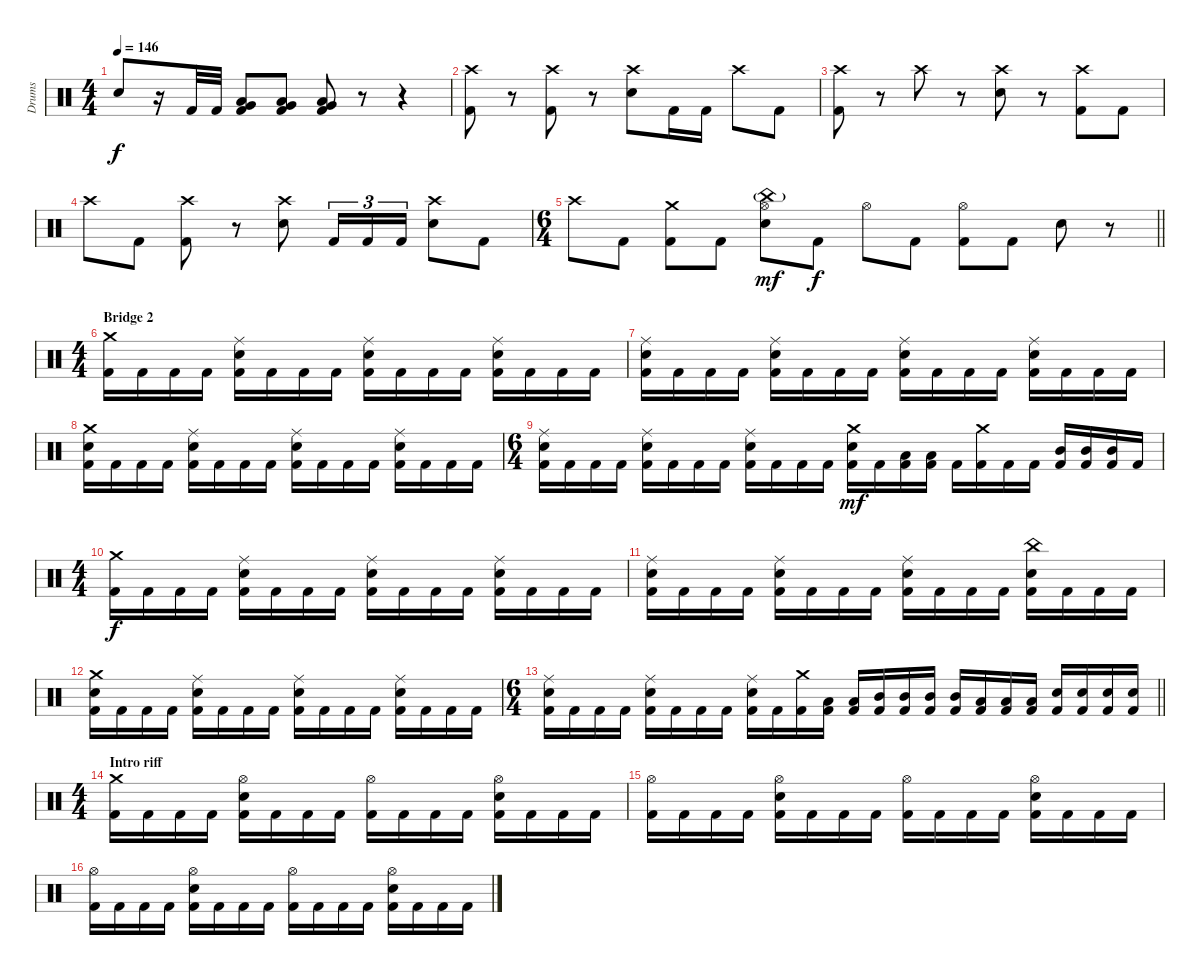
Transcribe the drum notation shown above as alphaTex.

\track ("Drums" "Drums") {instrument percussion}
\staff {score}
\articulation defaults
\ts (4 4)
\tempo 146
\clef neutral
\ks c "Electric Snare (hit)".8{dy f}
r.16 "Kick (hit) 2".32 "Kick (hit) 2".32 ("Very Low Tom (hit)" "Low Tom (hit)" "Kick (hit) 2").8 ("Very Low Tom (hit)" "Low Tom (hit)" "Kick (hit) 2").8 ("Very Low Tom (hit)" "Low Tom (hit)" "Kick (hit) 2").8 r.8 r.4 |
("Crash high (hit)" "Kick (hit) 2").8 r.8 ("Crash high (hit)" "Kick (hit) 2").8 r.8 ("Crash high (hit)" "Electric Snare (hit)").8 "Kick (hit) 2".16 "Kick (hit) 2".16 "Crash high (hit)".8 "Kick (hit) 2".8 |
("Crash high (hit)" "Kick (hit) 2").8 r.8 "Crash high (hit)".8 r.8 ("Crash high (hit)" "Electric Snare (hit)").8 r.8 ("Crash high (hit)" "Kick (hit) 2").8 "Kick (hit) 2".8 |
"Crash high (hit)".8 "Kick (hit) 2".8 ("Crash high (hit)" "Kick (hit) 2").8 r.8 ("Crash high (hit)" "Electric Snare (hit)").8 "Kick (hit) 2".16{tu (3 2)} "Kick (hit) 2".16{tu (3 2)} "Kick (hit) 2".16{tu (3 2)} ("Crash high (hit)" "Electric Snare (hit)").8 "Kick (hit) 2".8 |
\ts (6 4)
\barLineRight lightlight "Crash high (hit)".8 "Kick (hit) 2".8
("Crash medium (hit)" "Kick (hit) 2").8 "Kick (hit) 2".8 ("China (hit)"{g} "Hi-Hat (open)" "Electric Snare (hit)").8{dy mf} "Kick (hit) 2".8{dy f} "Hi-Hat (open)".8 "Kick (hit) 2".8 ("Hi-Hat (open)" "Kick (hit) 2").8 "Kick (hit) 2".8 "Electric Snare (hit)".8 r.8 |
\ts (4 4)
\section ("" "Bridge 2")
("Crash medium (hit)" "Kick (hit) 2").16 "Kick (hit) 2".16 "Kick (hit) 2".16 "Kick (hit) 2".16 ("Ride (middle)" "Electric Snare (hit)" "Kick (hit) 2").16 "Kick (hit) 2".16 "Kick (hit) 2".16 "Kick (hit) 2".16 ("Ride (middle)" "Electric Snare (hit)" "Kick (hit) 2").16 "Kick (hit) 2".16 "Kick (hit) 2".16 "Kick (hit) 2".16 ("Ride (middle)" "Electric Snare (hit)" "Kick (hit) 2").16 "Kick (hit) 2".16 "Kick (hit) 2".16 "Kick (hit) 2".16 |
("Ride (middle)" "Electric Snare (hit)" "Kick (hit) 2").16 "Kick (hit) 2".16 "Kick (hit) 2".16 "Kick (hit) 2".16 ("Ride (middle)" "Electric Snare (hit)" "Kick (hit) 2").16 "Kick (hit) 2".16 "Kick (hit) 2".16 "Kick (hit) 2".16 ("Ride (middle)" "Electric Snare (hit)" "Kick (hit) 2").16 "Kick (hit) 2".16 "Kick (hit) 2".16 "Kick (hit) 2".16 ("Ride (middle)" "Electric Snare (hit)" "Kick (hit) 2").16 "Kick (hit) 2".16 "Kick (hit) 2".16 "Kick (hit) 2".16 |
("Crash medium (hit)" "Electric Snare (hit)" "Kick (hit) 2").16 "Kick (hit) 2".16 "Kick (hit) 2".16 "Kick (hit) 2".16 ("Ride (middle)" "Electric Snare (hit)" "Kick (hit) 2").16 "Kick (hit) 2".16 "Kick (hit) 2".16 "Kick (hit) 2".16 ("Ride (middle)" "Electric Snare (hit)" "Kick (hit) 2").16 "Kick (hit) 2".16 "Kick (hit) 2".16 "Kick (hit) 2".16 ("Ride (middle)" "Electric Snare (hit)" "Kick (hit) 2").16 "Kick (hit) 2".16 "Kick (hit) 2".16 "Kick (hit) 2".16 |
\ts (6 4)
("Ride (middle)" "Electric Snare (hit)" "Kick (hit) 2").16 "Kick (hit) 2".16 "Kick (hit) 2".16 "Kick (hit) 2".16 ("Ride (middle)" "Electric Snare (hit)" "Kick (hit) 2").16 "Kick (hit) 2".16 "Kick (hit) 2".16 "Kick (hit) 2".16 ("Ride (middle)" "Electric Snare (hit)" "Kick (hit) 2").16 "Kick (hit) 2".16 "Kick (hit) 2".16 "Kick (hit) 2".16 ("Crash medium (hit)" "Electric Snare (hit)" "Kick (hit) 2").16{dy mf} "Kick (hit) 2".16 ("Low Tom (hit)" "Kick (hit) 2").16 ("Low Tom (hit)" "Kick (hit) 2").16 "Kick (hit) 2".16 ("Crash medium (hit)" "Kick (hit) 2").16 "Kick (hit) 2".16 "Kick (hit) 2".16 ("Mid Tom (hit)" "Kick (hit) 2").16 ("Mid Tom (hit)" "Kick (hit) 2").16 ("Mid Tom (hit)" "Kick (hit) 2").16 "Kick (hit) 2".16 |
\ts (4 4)
("Crash medium (hit)" "Kick (hit) 2").16{dy f} "Kick (hit) 2".16 "Kick (hit) 2".16 "Kick (hit) 2".16 ("Ride (middle)" "Electric Snare (hit)" "Kick (hit) 2").16 "Kick (hit) 2".16 "Kick (hit) 2".16 "Kick (hit) 2".16 ("Ride (middle)" "Electric Snare (hit)" "Kick (hit) 2").16 "Kick (hit) 2".16 "Kick (hit) 2".16 "Kick (hit) 2".16 ("Ride (middle)" "Electric Snare (hit)" "Kick (hit) 2").16 "Kick (hit) 2".16 "Kick (hit) 2".16 "Kick (hit) 2".16 |
("Ride (middle)" "Electric Snare (hit)" "Kick (hit) 2").16 "Kick (hit) 2".16 "Kick (hit) 2".16 "Kick (hit) 2".16 ("Ride (middle)" "Electric Snare (hit)" "Kick (hit) 2").16 "Kick (hit) 2".16 "Kick (hit) 2".16 "Kick (hit) 2".16 ("Ride (middle)" "Electric Snare (hit)" "Kick (hit) 2").16 "Kick (hit) 2".16 "Kick (hit) 2".16 "Kick (hit) 2".16 ("China (hit)" "Electric Snare (hit)" "Kick (hit) 2").16 "Kick (hit) 2".16 "Kick (hit) 2".16 "Kick (hit) 2".16 |
("Crash medium (hit)" "Electric Snare (hit)" "Kick (hit) 2").16 "Kick (hit) 2".16 "Kick (hit) 2".16 "Kick (hit) 2".16 ("Ride (middle)" "Electric Snare (hit)" "Kick (hit) 2").16 "Kick (hit) 2".16 "Kick (hit) 2".16 "Kick (hit) 2".16 ("Ride (middle)" "Electric Snare (hit)" "Kick (hit) 2").16 "Kick (hit) 2".16 "Kick (hit) 2".16 "Kick (hit) 2".16 ("Ride (middle)" "Electric Snare (hit)" "Kick (hit) 2").16 "Kick (hit) 2".16 "Kick (hit) 2".16 "Kick (hit) 2".16 |
\ts (6 4)
\barLineRight lightlight
("Ride (middle)" "Electric Snare (hit)" "Kick (hit) 2").16 "Kick (hit) 2".16 "Kick (hit) 2".16 "Kick (hit) 2".16 ("Ride (middle)" "Electric Snare (hit)" "Kick (hit) 2").16 "Kick (hit) 2".16 "Kick (hit) 2".16 "Kick (hit) 2".16 ("Ride (middle)" "Electric Snare (hit)" "Kick (hit) 2").16 "Kick (hit) 2".16 ("Crash medium (hit)" "Kick (hit) 2").16 ("Low Tom (hit)" "Kick (hit) 2").16 ("Low Tom (hit)" "Kick (hit) 2").16 ("Mid Tom (hit)" "Kick (hit) 2").16 ("Mid Tom (hit)" "Kick (hit) 2").16 ("Mid Tom (hit)" "Kick (hit) 2").16 ("Mid Tom (hit)" "Kick (hit) 2").16 ("Low Tom (hit)" "Kick (hit) 2").16 ("Low Tom (hit)" "Kick (hit) 2").16 ("Low Tom (hit)" "Kick (hit) 2").16 ("Electric Snare (hit)" "Kick (hit) 2").16 ("Electric Snare (hit)" "Kick (hit) 2").16 ("Electric Snare (hit)" "Kick (hit) 2").16 ("Electric Snare (hit)" "Kick (hit) 2").16 |
\ts (4 4)
\section ("" "Intro riff")
("Crash medium (hit)" "Kick (hit) 2").16 "Kick (hit) 2".16 "Kick (hit) 2".16 "Kick (hit) 2".16 ("Hi-Hat (open)" "Electric Snare (hit)" "Kick (hit) 2").16 "Kick (hit) 2".16 "Kick (hit) 2".16 "Kick (hit) 2".16 ("Hi-Hat (open)" "Kick (hit) 2").16 "Kick (hit) 2".16 "Kick (hit) 2".16 "Kick (hit) 2".16 ("Hi-Hat (open)" "Electric Snare (hit)" "Kick (hit) 2").16 "Kick (hit) 2".16 "Kick (hit) 2".16 "Kick (hit) 2".16 |
("Hi-Hat (open)" "Kick (hit) 2").16 "Kick (hit) 2".16 "Kick (hit) 2".16 "Kick (hit) 2".16 ("Hi-Hat (open)" "Electric Snare (hit)" "Kick (hit) 2").16 "Kick (hit) 2".16 "Kick (hit) 2".16 "Kick (hit) 2".16 ("Hi-Hat (open)" "Kick (hit) 2").16 "Kick (hit) 2".16 "Kick (hit) 2".16 "Kick (hit) 2".16 ("Hi-Hat (open)" "Electric Snare (hit)" "Kick (hit) 2").16 "Kick (hit) 2".16 "Kick (hit) 2".16 "Kick (hit) 2".16 |
("Hi-Hat (open)" "Kick (hit) 2").16 "Kick (hit) 2".16 "Kick (hit) 2".16 "Kick (hit) 2".16 ("Hi-Hat (open)" "Electric Snare (hit)" "Kick (hit) 2").16 "Kick (hit) 2".16 "Kick (hit) 2".16 "Kick (hit) 2".16 ("Hi-Hat (open)" "Kick (hit) 2").16 "Kick (hit) 2".16 "Kick (hit) 2".16 "Kick (hit) 2".16 ("Hi-Hat (open)" "Electric Snare (hit)" "Kick (hit) 2").16 "Kick (hit) 2".16 "Kick (hit) 2".16 "Kick (hit) 2".16
